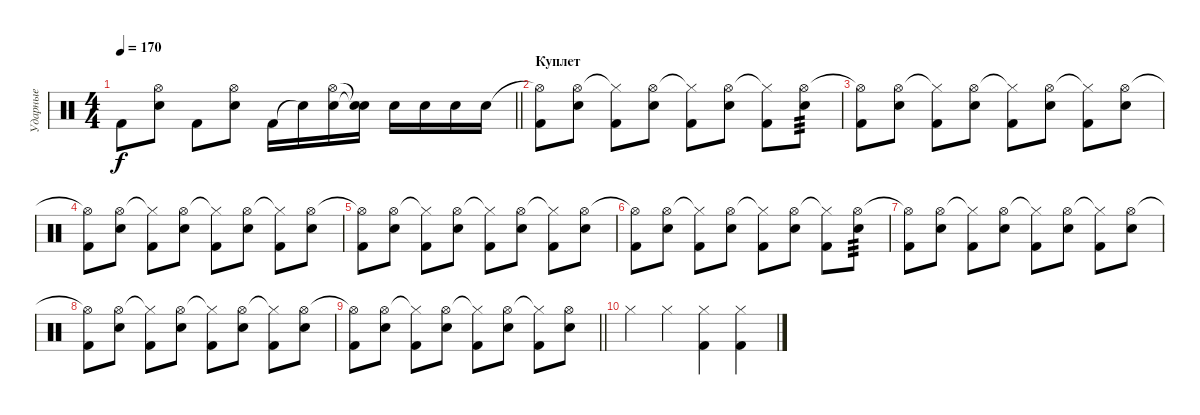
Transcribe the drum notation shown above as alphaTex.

\track ("Ударные" "Ударные") {instrument percussion}
\staff {score}
\articulation defaults
\ts (4 4)
\tempo 170
\clef neutral
\barLineRight lightlight
\ks c "Kick (hit) 2".8{dy f}
("Hi-Hat (open)" "Electric Snare (hit)").8 "Kick (hit) 2".8 ("Hi-Hat (open)" "Electric Snare (hit)").8 "Kick (hit) 2".16 "Electric Snare (hit)"{t}.16 ("Electric Snare (hit)" "Hi-Hat (open)").16 ("Electric Snare (hit)"{t} "Snare (hit)"{t}).16 "Electric Snare (hit)".16 "Electric Snare (hit)".16 "Electric Snare (hit)".16 "Electric Snare (hit)".16 |
\section ("" "Куплет")
("Hi-Hat (open)"{t} "Kick (hit) 2").8 ("Hi-Hat (open)" "Electric Snare (hit)").8 ("Hi-Hat (closed)"{t} "Kick (hit) 2").8 ("Hi-Hat (open)" "Electric Snare (hit)").8 ("Hi-Hat (closed)"{t} "Kick (hit) 2").8 ("Hi-Hat (open)" "Electric Snare (hit)").8 ("Hi-Hat (closed)"{t} "Kick (hit) 2").8 ("Hi-Hat (open)" "Electric Snare (hit)").8{tp 3} |
("Hi-Hat (open)"{t} "Kick (hit) 2").8 ("Hi-Hat (open)" "Electric Snare (hit)").8 ("Hi-Hat (closed)"{t} "Kick (hit) 2").8 ("Hi-Hat (open)" "Electric Snare (hit)").8 ("Hi-Hat (closed)"{t} "Kick (hit) 2").8 ("Hi-Hat (open)" "Electric Snare (hit)").8 ("Hi-Hat (closed)"{t} "Kick (hit) 2").8 ("Hi-Hat (open)" "Electric Snare (hit)").8 |
("Hi-Hat (open)"{t} "Kick (hit) 2").8 ("Hi-Hat (open)" "Electric Snare (hit)").8 ("Hi-Hat (closed)"{t} "Kick (hit) 2").8 ("Hi-Hat (open)" "Electric Snare (hit)").8 ("Hi-Hat (closed)"{t} "Kick (hit) 2").8 ("Hi-Hat (open)" "Electric Snare (hit)").8 ("Hi-Hat (closed)"{t} "Kick (hit) 2").8 ("Hi-Hat (open)" "Electric Snare (hit)").8 |
("Hi-Hat (open)"{t} "Kick (hit) 2").8 ("Hi-Hat (open)" "Electric Snare (hit)").8 ("Hi-Hat (closed)"{t} "Kick (hit) 2").8 ("Hi-Hat (open)" "Electric Snare (hit)").8 ("Hi-Hat (closed)"{t} "Kick (hit) 2").8 ("Hi-Hat (open)" "Electric Snare (hit)").8 ("Hi-Hat (closed)"{t} "Kick (hit) 2").8 ("Hi-Hat (open)" "Electric Snare (hit)").8 |
("Hi-Hat (open)"{t} "Kick (hit) 2").8 ("Hi-Hat (open)" "Electric Snare (hit)").8 ("Hi-Hat (closed)"{t} "Kick (hit) 2").8 ("Hi-Hat (open)" "Electric Snare (hit)").8 ("Hi-Hat (closed)"{t} "Kick (hit) 2").8 ("Hi-Hat (open)" "Electric Snare (hit)").8 ("Hi-Hat (closed)"{t} "Kick (hit) 2").8 ("Hi-Hat (open)" "Electric Snare (hit)").8{tp 3} |
("Hi-Hat (open)"{t} "Kick (hit) 2").8 ("Hi-Hat (open)" "Electric Snare (hit)").8 ("Hi-Hat (closed)"{t} "Kick (hit) 2").8 ("Hi-Hat (open)" "Electric Snare (hit)").8 ("Hi-Hat (closed)"{t} "Kick (hit) 2").8 ("Hi-Hat (open)" "Electric Snare (hit)").8 ("Hi-Hat (closed)"{t} "Kick (hit) 2").8 ("Hi-Hat (open)" "Electric Snare (hit)").8 |
("Hi-Hat (open)"{t} "Kick (hit) 2").8 ("Hi-Hat (open)" "Electric Snare (hit)").8 ("Hi-Hat (closed)"{t} "Kick (hit) 2").8 ("Hi-Hat (open)" "Electric Snare (hit)").8 ("Hi-Hat (closed)"{t} "Kick (hit) 2").8 ("Hi-Hat (open)" "Electric Snare (hit)").8 ("Hi-Hat (closed)"{t} "Kick (hit) 2").8 ("Hi-Hat (open)" "Electric Snare (hit)").8 |
\barLineRight lightlight
("Hi-Hat (open)"{t} "Kick (hit) 2").8 ("Hi-Hat (open)" "Electric Snare (hit)").8 ("Hi-Hat (closed)"{t} "Kick (hit) 2").8 ("Hi-Hat (open)" "Electric Snare (hit)").8 ("Hi-Hat (closed)"{t} "Kick (hit) 2").8 ("Hi-Hat (open)" "Electric Snare (hit)").8 ("Hi-Hat (closed)"{t} "Kick (hit) 2").8 ("Hi-Hat (open)" "Electric Snare (hit)").8 |
"Hi-Hat (closed)".4 "Hi-Hat (closed)".4 ("Hi-Hat (closed)" "Kick (hit) 2").4 ("Hi-Hat (closed)" "Kick (hit) 2").4
